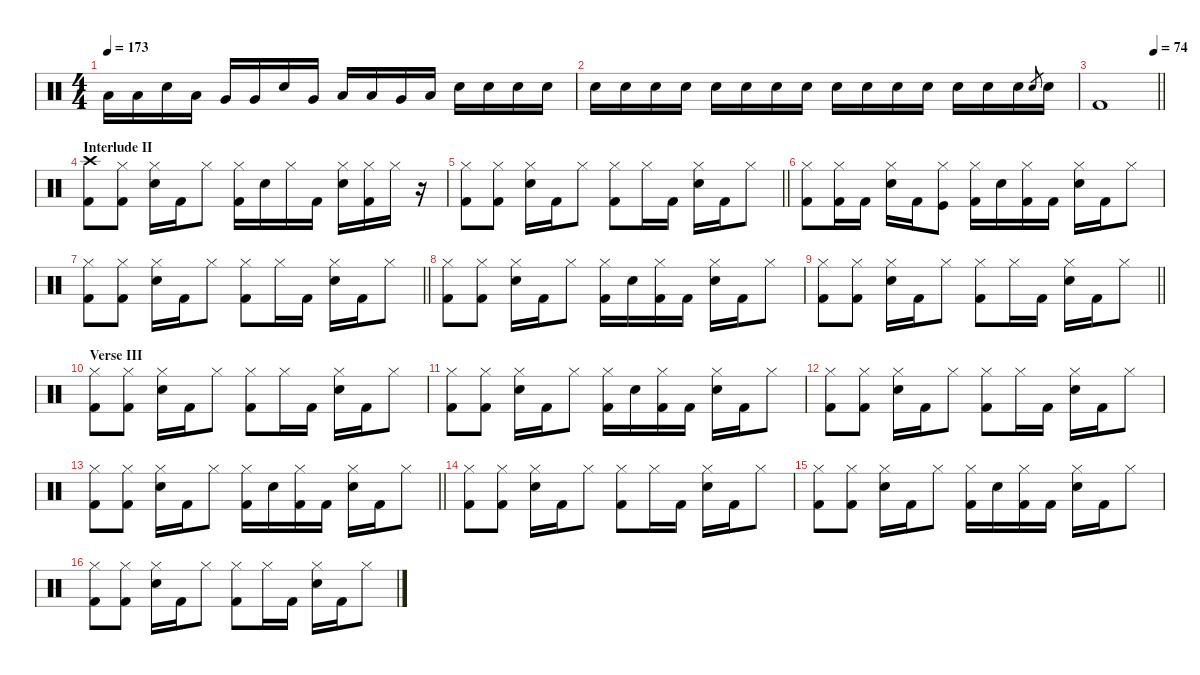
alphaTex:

\defaultSystemsLayout 4
\hideDynamics
\bracketExtendMode nobrackets
\singleTrackTrackNamePolicy hidden
\multiTrackTrackNamePolicy hidden
\firstSystemTrackNameMode fullname
\firstSystemTrackNameOrientation horizontal
\otherSystemsTrackNameOrientation horizontal
\track ("Bill Ward" "drm.") {instrument percussion}
\staff {score}
\articulation defaults
\ts (4 4)
\tempo 173
\clef neutral
\ks c "Low Tom (hit)".16{dy f beam Down} "Low Tom (hit)".16{beam Down} "Snare (hit) 2".16{beam Down} "Low Tom (hit)".16{beam Down} "Very Low Tom (hit)".16{beam Up} "Very Low Tom (hit)".16{beam Up} "Snare (hit) 2".16{beam Up} "Very Low Tom (hit)".16{beam Up} "Low Floor Tom (hit)".16{beam Up} "Low Floor Tom (hit)".16{beam Up} "Very Low Tom (hit)".16{beam Up} "Low Floor Tom (hit)".16{beam Up} "Snare (hit) 2".16{beam Down} "Snare (hit) 2".16{beam Down} "Snare (hit) 2".16{beam Down} "Snare (hit) 2".16{beam Down}
|
"Snare (hit) 2".16{beam Down} "Snare (hit) 2".16{beam Down} "Snare (hit) 2".16{beam Down} "Snare (hit) 2".16{beam Down} "Snare (hit) 2".16{beam Down} "Snare (hit) 2".16{beam Down} "Snare (hit) 2".16{beam Down} "Snare (hit) 2".16{beam Down} "Snare (hit) 2".16{beam Down} "Snare (hit) 2".16{beam Down} "Snare (hit) 2".16{beam Down} "Snare (hit) 2".16{beam Down} "Snare (hit) 2".16{beam Down} "Snare (hit) 2".16{beam Down} "Snare (hit) 2".16{beam Down} "Snare (hit) 2".8{gr dy mf beam Up} "Snare (hit) 2".16{dy f beam Down} |
\tempo (74 0.9375)
\barLineRight lightlight "Kick (hit) 2".1{beam Up}
|
\section ("" "Interlude II")
("Kick (hit) 2" "Crash high (hit)").8{beam Down} ("Kick (hit) 2" "Hi-Hat (closed)").8{beam Down} ("Snare (hit) 2" "Hi-Hat (closed)").16{beam Down} "Kick (hit) 2".16{beam Down} "Hi-Hat (closed)".8{beam Down} ("Kick (hit) 2" "Hi-Hat (closed)").16{beam Down} "Snare (hit) 2".16{beam Down} "Hi-Hat (closed)".16{beam Down} "Kick (hit) 2".16{beam Down} ("Snare (hit) 2" "Hi-Hat (closed)").16{beam Down} ("Kick (hit) 2" "Hi-Hat (closed)").16{beam Down} "Hi-Hat (closed)".16{beam Down} r.16{beam Down} |
\barLineRight lightlight
("Kick (hit) 2" "Hi-Hat (closed)").8{beam Down} ("Kick (hit) 2" "Hi-Hat (closed)").8{beam Down} ("Snare (hit) 2" "Hi-Hat (closed)").16{beam Down} "Kick (hit) 2".16{beam Down} "Hi-Hat (closed)".8{beam Down} ("Kick (hit) 2" "Hi-Hat (closed)").8{beam Down} "Hi-Hat (closed)".16{beam Down} "Kick (hit) 2".16{beam Down} ("Snare (hit) 2" "Hi-Hat (closed)").16{beam Down} "Kick (hit) 2".16{beam Down} "Hi-Hat (closed)".8{beam Down} |
("Kick (hit) 2" "Hi-Hat (closed)").8{beam Down} ("Hi-Hat (closed)" "Kick (hit) 2").16{beam Down} "Kick (hit) 2".16{beam Down} ("Snare (hit) 2" "Hi-Hat (closed)").16{beam Down} "Kick (hit) 2".16{beam Down} ("Hi-Hat (closed)" "Kick (hit)").8{beam Down} ("Kick (hit) 2" "Hi-Hat (closed)").16{beam Down} "Snare (hit) 2".16{beam Down} ("Kick (hit) 2" "Hi-Hat (closed)").16{beam Down} "Kick (hit) 2".16{beam Down} ("Snare (hit) 2" "Hi-Hat (closed)").16{beam Down} "Kick (hit) 2".16{beam Down} "Hi-Hat (closed)".8{beam Down} |
\barLineRight lightlight
("Kick (hit) 2" "Hi-Hat (closed)").8{beam Down} ("Kick (hit) 2" "Hi-Hat (closed)").8{beam Down} ("Snare (hit) 2" "Hi-Hat (closed)").16{beam Down} "Kick (hit) 2".16{beam Down} "Hi-Hat (closed)".8{beam Down} ("Kick (hit) 2" "Hi-Hat (closed)").8{beam Down} "Hi-Hat (closed)".16{beam Down} "Kick (hit) 2".16{beam Down} ("Snare (hit) 2" "Hi-Hat (closed)").16{beam Down} "Kick (hit) 2".16{beam Down} "Hi-Hat (closed)".8{beam Down} |
("Kick (hit) 2" "Hi-Hat (closed)").8{beam Down} ("Hi-Hat (closed)" "Kick (hit) 2").8{beam Down} ("Snare (hit) 2" "Hi-Hat (closed)").16{beam Down} "Kick (hit) 2".16{beam Down} "Hi-Hat (closed)".8{beam Down} ("Kick (hit) 2" "Hi-Hat (closed)").16{beam Down} "Snare (hit) 2".16{beam Down} ("Kick (hit) 2" "Hi-Hat (closed)").16{beam Down} "Kick (hit) 2".16{beam Down} ("Snare (hit) 2" "Hi-Hat (closed)").16{beam Down} "Kick (hit) 2".16{beam Down} "Hi-Hat (closed)".8{beam Down} |
\barLineRight lightlight
("Kick (hit) 2" "Hi-Hat (closed)").8{beam Down} ("Kick (hit) 2" "Hi-Hat (closed)").8{beam Down} ("Snare (hit) 2" "Hi-Hat (closed)").16{beam Down} "Kick (hit) 2".16{beam Down} "Hi-Hat (closed)".8{beam Down} ("Kick (hit) 2" "Hi-Hat (closed)").8{beam Down} "Hi-Hat (closed)".16{beam Down} "Kick (hit) 2".16{beam Down} ("Snare (hit) 2" "Hi-Hat (closed)").16{beam Down} "Kick (hit) 2".16{beam Down} "Hi-Hat (closed)".8{beam Down} |
\section ("" "Verse III")
("Kick (hit) 2" "Hi-Hat (closed)").8{beam Down} ("Kick (hit) 2" "Hi-Hat (closed)").8{beam Down} ("Snare (hit) 2" "Hi-Hat (closed)").16{beam Down} "Kick (hit) 2".16{beam Down} "Hi-Hat (closed)".8{beam Down} ("Kick (hit) 2" "Hi-Hat (closed)").8{beam Down} "Hi-Hat (closed)".16{beam Down} "Kick (hit) 2".16{beam Down} ("Snare (hit) 2" "Hi-Hat (closed)").16{beam Down} "Kick (hit) 2".16{beam Down} "Hi-Hat (closed)".8{beam Down} |
("Kick (hit) 2" "Hi-Hat (closed)").8{beam Down} ("Hi-Hat (closed)" "Kick (hit) 2").8{beam Down} ("Snare (hit) 2" "Hi-Hat (closed)").16{beam Down} "Kick (hit) 2".16{beam Down} "Hi-Hat (closed)".8{beam Down} ("Kick (hit) 2" "Hi-Hat (closed)").16{beam Down} "Snare (hit) 2".16{beam Down} ("Kick (hit) 2" "Hi-Hat (closed)").16{beam Down} "Kick (hit) 2".16{beam Down} ("Snare (hit) 2" "Hi-Hat (closed)").16{beam Down} "Kick (hit) 2".16{beam Down} "Hi-Hat (closed)".8{beam Down} |
("Kick (hit) 2" "Hi-Hat (closed)").8{beam Down} ("Kick (hit) 2" "Hi-Hat (closed)").8{beam Down} ("Snare (hit) 2" "Hi-Hat (closed)").16{beam Down} "Kick (hit) 2".16{beam Down} "Hi-Hat (closed)".8{beam Down} ("Kick (hit) 2" "Hi-Hat (closed)").8{beam Down} "Hi-Hat (closed)".16{beam Down} "Kick (hit) 2".16{beam Down} ("Snare (hit) 2" "Hi-Hat (closed)").16{beam Down} "Kick (hit) 2".16{beam Down} "Hi-Hat (closed)".8{beam Down} |
\barLineRight lightlight
("Kick (hit) 2" "Hi-Hat (closed)").8{beam Down} ("Hi-Hat (closed)" "Kick (hit) 2").8{beam Down} ("Snare (hit) 2" "Hi-Hat (closed)").16{beam Down} "Kick (hit) 2".16{beam Down} "Hi-Hat (closed)".8{beam Down} ("Kick (hit) 2" "Hi-Hat (closed)").16{beam Down} "Snare (hit) 2".16{beam Down} ("Kick (hit) 2" "Hi-Hat (closed)").16{beam Down} "Kick (hit) 2".16{beam Down} ("Snare (hit) 2" "Hi-Hat (closed)").16{beam Down} "Kick (hit) 2".16{beam Down} "Hi-Hat (closed)".8{beam Down} |
("Kick (hit) 2" "Hi-Hat (closed)").8{beam Down} ("Kick (hit) 2" "Hi-Hat (closed)").8{beam Down} ("Snare (hit) 2" "Hi-Hat (closed)").16{beam Down} "Kick (hit) 2".16{beam Down} "Hi-Hat (closed)".8{beam Down} ("Kick (hit) 2" "Hi-Hat (closed)").8{beam Down} "Hi-Hat (closed)".16{beam Down} "Kick (hit) 2".16{beam Down} ("Snare (hit) 2" "Hi-Hat (closed)").16{beam Down} "Kick (hit) 2".16{beam Down} "Hi-Hat (closed)".8{beam Down} |
("Kick (hit) 2" "Hi-Hat (closed)").8{beam Down} ("Hi-Hat (closed)" "Kick (hit) 2").8{beam Down} ("Snare (hit) 2" "Hi-Hat (closed)").16{beam Down} "Kick (hit) 2".16{beam Down} "Hi-Hat (closed)".8{beam Down} ("Kick (hit) 2" "Hi-Hat (closed)").16{beam Down} "Snare (hit) 2".16{beam Down} ("Kick (hit) 2" "Hi-Hat (closed)").16{beam Down} "Kick (hit) 2".16{beam Down} ("Snare (hit) 2" "Hi-Hat (closed)").16{beam Down} "Kick (hit) 2".16{beam Down} "Hi-Hat (closed)".8{beam Down} |
("Kick (hit) 2" "Hi-Hat (closed)").8{beam Down} ("Kick (hit) 2" "Hi-Hat (closed)").8{beam Down} ("Snare (hit) 2" "Hi-Hat (closed)").16{beam Down} "Kick (hit) 2".16{beam Down} "Hi-Hat (closed)".8{beam Down} ("Kick (hit) 2" "Hi-Hat (closed)").8{beam Down} "Hi-Hat (closed)".16{beam Down} "Kick (hit) 2".16{beam Down} ("Snare (hit) 2" "Hi-Hat (closed)").16{beam Down} "Kick (hit) 2".16{beam Down} "Hi-Hat (closed)".8{beam Down}
